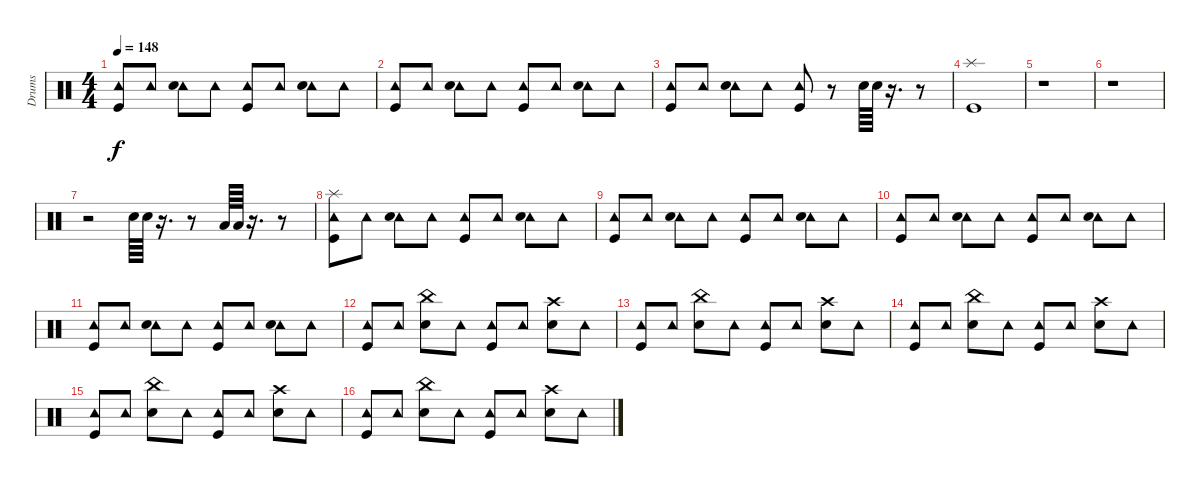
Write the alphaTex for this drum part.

\track ("Drums" "Drums") {instrument percussion}
\staff {score}
\articulation defaults
\ts (4 4)
\tempo 148
\clef neutral
\ks c
("Tambourine (hit)" "Kick (hit)").8{dy f} "Tambourine (hit)".8 ("Tambourine (hit)" "Snare (hit) 2").8 "Tambourine (hit)".8 ("Tambourine (hit)" "Kick (hit)").8 "Tambourine (hit)".8 ("Tambourine (hit)" "Snare (hit) 2").8 "Tambourine (hit)".8 |
("Tambourine (hit)" "Kick (hit)").8 "Tambourine (hit)".8 ("Tambourine (hit)" "Snare (hit) 2").8 "Tambourine (hit)".8 ("Tambourine (hit)" "Kick (hit)").8 "Tambourine (hit)".8 ("Tambourine (hit)" "Snare (hit) 2").8 "Tambourine (hit)".8 |
("Tambourine (hit)" "Kick (hit)").8 "Tambourine (hit)".8 ("Tambourine (hit)" "Snare (hit) 2").8 "Tambourine (hit)".8 ("Tambourine (hit)" "Kick (hit)").8 r.8 "Snare (hit) 2".64 "Snare (hit) 2".64 r.16{d} r.8 |
("Kick (hit)" "Splash (hit)").1 |
r.1 |
r.1 |
r.2 "Snare (hit) 2".64 "Snare (hit) 2".64 r.16{d} r.8 "Low Tom (hit)".64 "Low Tom (hit)".64 r.16{d} r.8 |
("Tambourine (hit)" "Kick (hit)" "Splash (hit)").8 "Tambourine (hit)".8 ("Tambourine (hit)" "Snare (hit) 2").8 "Tambourine (hit)".8 ("Tambourine (hit)" "Kick (hit)").8 "Tambourine (hit)".8 ("Tambourine (hit)" "Snare (hit) 2").8 "Tambourine (hit)".8 |
("Tambourine (hit)" "Kick (hit)").8 "Tambourine (hit)".8 ("Tambourine (hit)" "Snare (hit) 2").8 "Tambourine (hit)".8 ("Tambourine (hit)" "Kick (hit)").8 "Tambourine (hit)".8 ("Tambourine (hit)" "Snare (hit) 2").8 "Tambourine (hit)".8 |
("Tambourine (hit)" "Kick (hit)").8 "Tambourine (hit)".8 ("Tambourine (hit)" "Snare (hit) 2").8 "Tambourine (hit)".8 ("Tambourine (hit)" "Kick (hit)").8 "Tambourine (hit)".8 ("Tambourine (hit)" "Snare (hit) 2").8 "Tambourine (hit)".8 |
("Tambourine (hit)" "Kick (hit)").8 "Tambourine (hit)".8 ("Tambourine (hit)" "Snare (hit) 2").8 "Tambourine (hit)".8 ("Tambourine (hit)" "Kick (hit)").8 "Tambourine (hit)".8 ("Tambourine (hit)" "Snare (hit) 2").8 "Tambourine (hit)".8 |
("Tambourine (hit)" "Kick (hit)").8 "Tambourine (hit)".8 ("Snare (hit) 2" "China (hit)").8 "Tambourine (hit)".8 ("Tambourine (hit)" "Kick (hit)").8 "Tambourine (hit)".8 ("Snare (hit) 2" "Crash high (hit)").8 "Tambourine (hit)".8 |
("Tambourine (hit)" "Kick (hit)").8 "Tambourine (hit)".8 ("Snare (hit) 2" "China (hit)").8 "Tambourine (hit)".8 ("Tambourine (hit)" "Kick (hit)").8 "Tambourine (hit)".8 ("Snare (hit) 2" "Crash high (hit)").8 "Tambourine (hit)".8 |
("Tambourine (hit)" "Kick (hit)").8 "Tambourine (hit)".8 ("Snare (hit) 2" "China (hit)").8 "Tambourine (hit)".8 ("Tambourine (hit)" "Kick (hit)").8 "Tambourine (hit)".8 ("Snare (hit) 2" "Crash high (hit)").8 "Tambourine (hit)".8 |
("Tambourine (hit)" "Kick (hit)").8 "Tambourine (hit)".8 ("Snare (hit) 2" "China (hit)").8 "Tambourine (hit)".8 ("Tambourine (hit)" "Kick (hit)").8 "Tambourine (hit)".8 ("Snare (hit) 2" "Crash high (hit)").8 "Tambourine (hit)".8 |
("Tambourine (hit)" "Kick (hit)").8 "Tambourine (hit)".8 ("Snare (hit) 2" "China (hit)").8 "Tambourine (hit)".8 ("Tambourine (hit)" "Kick (hit)").8 "Tambourine (hit)".8 ("Snare (hit) 2" "Crash high (hit)").8 "Tambourine (hit)".8
